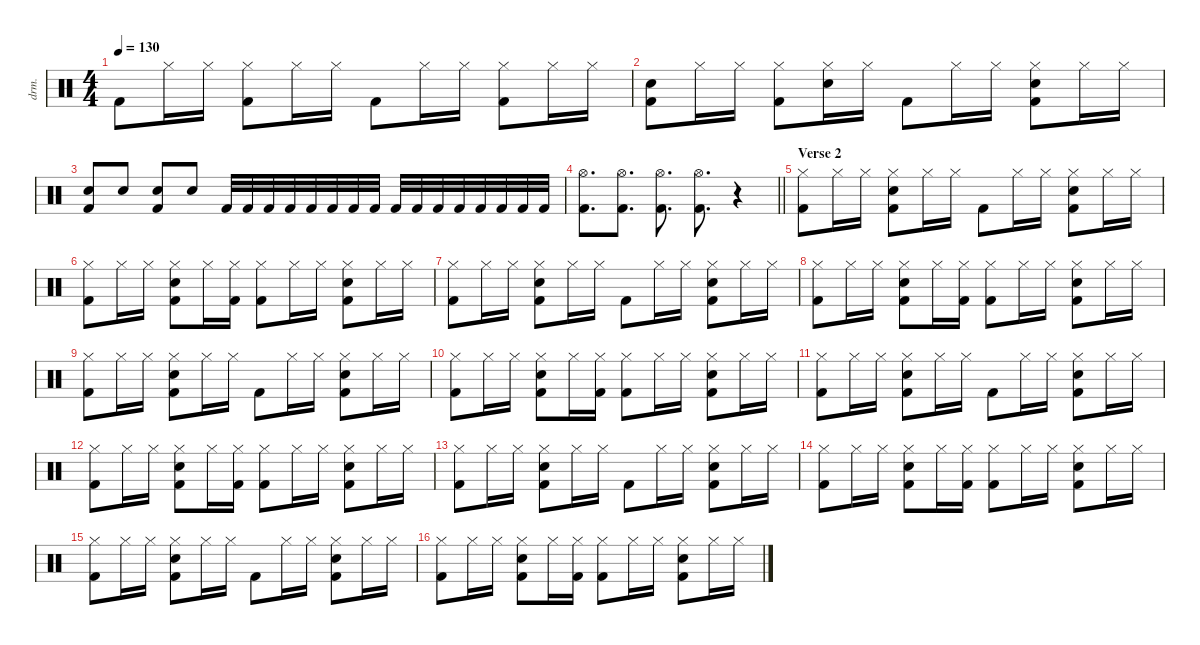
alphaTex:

\defaultSystemsLayout 4
\hideDynamics
\bracketExtendMode nobrackets
\otherSystemsTrackNameOrientation horizontal
\track ("Percussion" "drm.") {defaultSystemsLayout 4 instrument percussion}
\staff {score}
\articulation defaults
\ts (4 4)
\tempo 130
\clef neutral
\ks c "Kick (hit) 2".8{dy f beam Down} "Hi-Hat (closed)".16{beam Down} "Hi-Hat (closed)".16{beam Down}
("Hi-Hat (closed)" "Kick (hit) 2").8{beam Down} "Hi-Hat (closed)".16{beam Down} "Hi-Hat (closed)".16{beam Down} "Kick (hit) 2".8{beam Down} "Hi-Hat (closed)".16{beam Down} "Hi-Hat (closed)".16{beam Down} ("Hi-Hat (closed)" "Kick (hit) 2").8{beam Down} "Hi-Hat (closed)".16{beam Down} "Hi-Hat (closed)".16{beam Down} |
("Snare (hit) 2" "Kick (hit) 2").8{beam Down} "Hi-Hat (closed)".16{beam Down} "Hi-Hat (closed)".16{beam Down} ("Hi-Hat (closed)" "Kick (hit) 2").8{beam Down} ("Hi-Hat (closed)" "Snare (hit) 2").16{beam Down} "Hi-Hat (closed)".16{beam Down} "Kick (hit) 2".8{beam Down} "Hi-Hat (closed)".16{beam Down} "Hi-Hat (closed)".16{beam Down} ("Hi-Hat (closed)" "Snare (hit) 2" "Kick (hit) 2").8{beam Down} "Hi-Hat (closed)".16{beam Down} "Hi-Hat (closed)".16{beam Down} |
("Snare (hit) 2" "Kick (hit) 2").8{beam Up} "Snare (hit) 2".8{beam Up} ("Snare (hit) 2" "Kick (hit) 2").8{beam Up} "Snare (hit) 2".8{beam Up} "Kick (hit) 2".32{beam Up} "Kick (hit) 2".32{dy mf beam Up} "Kick (hit) 2".32{dy f beam Up} "Kick (hit) 2".32{dy mf beam Up} "Kick (hit) 2".32{dy f beam Up} "Kick (hit) 2".32{dy mf beam Up} "Kick (hit) 2".32{dy f beam Up} "Kick (hit) 2".32{dy mf beam Up} "Kick (hit) 2".32{dy f beam Up} "Kick (hit) 2".32{dy mf beam Up} "Kick (hit) 2".32{dy f beam Up} "Kick (hit) 2".32{dy mf beam Up} "Kick (hit) 2".32{dy f beam Up} "Kick (hit) 2".32{dy mf beam Up} "Kick (hit) 2".32{dy f beam Up} "Kick (hit) 2".32{dy mf beam Up} |
\barLineRight lightlight
("Hi-Hat (open)" "Kick (hit) 2").8{d dy f beam Down} ("Hi-Hat (open)" "Kick (hit) 2").8{d beam Down} ("Hi-Hat (open)" "Kick (hit) 2").8{d beam Down} ("Hi-Hat (open)" "Kick (hit) 2").8{d beam Down} r.4{beam Down} |
\section ("" "Verse 2")
("Hi-Hat (closed)" "Kick (hit) 2").8{beam Down} "Hi-Hat (closed)".16{beam Down} "Hi-Hat (closed)".16{beam Down} ("Hi-Hat (closed)" "Snare (hit) 2" "Kick (hit) 2").8{beam Down} "Hi-Hat (closed)".16{beam Down} "Hi-Hat (closed)".16{beam Down} "Kick (hit) 2".8{beam Down} "Hi-Hat (closed)".16{beam Down} "Hi-Hat (closed)".16{beam Down} ("Hi-Hat (closed)" "Snare (hit) 2" "Kick (hit) 2").8{beam Down} "Hi-Hat (closed)".16{beam Down} "Hi-Hat (closed)".16{beam Down} |
("Hi-Hat (closed)" "Kick (hit) 2").8{beam Down} "Hi-Hat (closed)".16{beam Down} "Hi-Hat (closed)".16{beam Down} ("Hi-Hat (closed)" "Snare (hit) 2" "Kick (hit) 2").8{beam Down} "Hi-Hat (closed)".16{beam Down} ("Hi-Hat (closed)" "Kick (hit) 2").16{beam Down} ("Hi-Hat (closed)" "Kick (hit) 2").8{beam Down} "Hi-Hat (closed)".16{beam Down} "Hi-Hat (closed)".16{beam Down} ("Hi-Hat (closed)" "Snare (hit) 2" "Kick (hit) 2").8{beam Down} "Hi-Hat (closed)".16{beam Down} "Hi-Hat (closed)".16{beam Down} |
("Hi-Hat (closed)" "Kick (hit) 2").8{beam Down} "Hi-Hat (closed)".16{beam Down} "Hi-Hat (closed)".16{beam Down} ("Hi-Hat (closed)" "Snare (hit) 2" "Kick (hit) 2").8{beam Down} "Hi-Hat (closed)".16{beam Down} "Hi-Hat (closed)".16{beam Down} "Kick (hit) 2".8{beam Down} "Hi-Hat (closed)".16{beam Down} "Hi-Hat (closed)".16{beam Down} ("Hi-Hat (closed)" "Snare (hit) 2" "Kick (hit) 2").8{beam Down} "Hi-Hat (closed)".16{beam Down} "Hi-Hat (closed)".16{beam Down} |
("Hi-Hat (closed)" "Kick (hit) 2").8{beam Down} "Hi-Hat (closed)".16{beam Down} "Hi-Hat (closed)".16{beam Down} ("Hi-Hat (closed)" "Snare (hit) 2" "Kick (hit) 2").8{beam Down} "Hi-Hat (closed)".16{beam Down} ("Hi-Hat (closed)" "Kick (hit) 2").16{beam Down} ("Hi-Hat (closed)" "Kick (hit) 2").8{beam Down} "Hi-Hat (closed)".16{beam Down} "Hi-Hat (closed)".16{beam Down} ("Hi-Hat (closed)" "Snare (hit) 2" "Kick (hit) 2").8{beam Down} "Hi-Hat (closed)".16{beam Down} "Hi-Hat (closed)".16{beam Down} |
("Hi-Hat (closed)" "Kick (hit) 2").8{beam Down} "Hi-Hat (closed)".16{beam Down} "Hi-Hat (closed)".16{beam Down} ("Hi-Hat (closed)" "Snare (hit) 2" "Kick (hit) 2").8{beam Down} "Hi-Hat (closed)".16{beam Down} "Hi-Hat (closed)".16{beam Down} "Kick (hit) 2".8{beam Down} "Hi-Hat (closed)".16{beam Down} "Hi-Hat (closed)".16{beam Down} ("Hi-Hat (closed)" "Snare (hit) 2" "Kick (hit) 2").8{beam Down} "Hi-Hat (closed)".16{beam Down} "Hi-Hat (closed)".16{beam Down} |
("Hi-Hat (closed)" "Kick (hit) 2").8{beam Down} "Hi-Hat (closed)".16{beam Down} "Hi-Hat (closed)".16{beam Down} ("Hi-Hat (closed)" "Snare (hit) 2" "Kick (hit) 2").8{beam Down} "Hi-Hat (closed)".16{beam Down} ("Hi-Hat (closed)" "Kick (hit) 2").16{beam Down} ("Hi-Hat (closed)" "Kick (hit) 2").8{beam Down} "Hi-Hat (closed)".16{beam Down} "Hi-Hat (closed)".16{beam Down} ("Hi-Hat (closed)" "Snare (hit) 2" "Kick (hit) 2").8{beam Down} "Hi-Hat (closed)".16{beam Down} "Hi-Hat (closed)".16{beam Down} |
("Hi-Hat (closed)" "Kick (hit) 2").8{beam Down} "Hi-Hat (closed)".16{beam Down} "Hi-Hat (closed)".16{beam Down} ("Hi-Hat (closed)" "Snare (hit) 2" "Kick (hit) 2").8{beam Down} "Hi-Hat (closed)".16{beam Down} "Hi-Hat (closed)".16{beam Down} "Kick (hit) 2".8{beam Down} "Hi-Hat (closed)".16{beam Down} "Hi-Hat (closed)".16{beam Down} ("Hi-Hat (closed)" "Snare (hit) 2" "Kick (hit) 2").8{beam Down} "Hi-Hat (closed)".16{beam Down} "Hi-Hat (closed)".16{beam Down} |
("Hi-Hat (closed)" "Kick (hit) 2").8{beam Down} "Hi-Hat (closed)".16{beam Down} "Hi-Hat (closed)".16{beam Down} ("Hi-Hat (closed)" "Snare (hit) 2" "Kick (hit) 2").8{beam Down} "Hi-Hat (closed)".16{beam Down} ("Hi-Hat (closed)" "Kick (hit) 2").16{beam Down} ("Hi-Hat (closed)" "Kick (hit) 2").8{beam Down} "Hi-Hat (closed)".16{beam Down} "Hi-Hat (closed)".16{beam Down} ("Hi-Hat (closed)" "Snare (hit) 2" "Kick (hit) 2").8{beam Down} "Hi-Hat (closed)".16{beam Down} "Hi-Hat (closed)".16{beam Down} |
("Hi-Hat (closed)" "Kick (hit) 2").8{beam Down} "Hi-Hat (closed)".16{beam Down} "Hi-Hat (closed)".16{beam Down} ("Hi-Hat (closed)" "Snare (hit) 2" "Kick (hit) 2").8{beam Down} "Hi-Hat (closed)".16{beam Down} "Hi-Hat (closed)".16{beam Down} "Kick (hit) 2".8{beam Down} "Hi-Hat (closed)".16{beam Down} "Hi-Hat (closed)".16{beam Down} ("Hi-Hat (closed)" "Snare (hit) 2" "Kick (hit) 2").8{beam Down} "Hi-Hat (closed)".16{beam Down} "Hi-Hat (closed)".16{beam Down} |
("Hi-Hat (closed)" "Kick (hit) 2").8{beam Down} "Hi-Hat (closed)".16{beam Down} "Hi-Hat (closed)".16{beam Down} ("Hi-Hat (closed)" "Snare (hit) 2" "Kick (hit) 2").8{beam Down} "Hi-Hat (closed)".16{beam Down} ("Hi-Hat (closed)" "Kick (hit) 2").16{beam Down} ("Hi-Hat (closed)" "Kick (hit) 2").8{beam Down} "Hi-Hat (closed)".16{beam Down} "Hi-Hat (closed)".16{beam Down} ("Hi-Hat (closed)" "Snare (hit) 2" "Kick (hit) 2").8{beam Down} "Hi-Hat (closed)".16{beam Down} "Hi-Hat (closed)".16{beam Down} |
("Hi-Hat (closed)" "Kick (hit) 2").8{beam Down} "Hi-Hat (closed)".16{beam Down} "Hi-Hat (closed)".16{beam Down} ("Hi-Hat (closed)" "Snare (hit) 2" "Kick (hit) 2").8{beam Down} "Hi-Hat (closed)".16{beam Down} "Hi-Hat (closed)".16{beam Down} "Kick (hit) 2".8{beam Down} "Hi-Hat (closed)".16{beam Down} "Hi-Hat (closed)".16{beam Down} ("Hi-Hat (closed)" "Snare (hit) 2" "Kick (hit) 2").8{beam Down} "Hi-Hat (closed)".16{beam Down} "Hi-Hat (closed)".16{beam Down} |
("Hi-Hat (closed)" "Kick (hit) 2").8{beam Down} "Hi-Hat (closed)".16{beam Down} "Hi-Hat (closed)".16{beam Down} ("Hi-Hat (closed)" "Snare (hit) 2" "Kick (hit) 2").8{beam Down} "Hi-Hat (closed)".16{beam Down} ("Hi-Hat (closed)" "Kick (hit) 2").16{beam Down} ("Hi-Hat (closed)" "Kick (hit) 2").8{beam Down} "Hi-Hat (closed)".16{beam Down} "Hi-Hat (closed)".16{beam Down} ("Hi-Hat (closed)" "Snare (hit) 2" "Kick (hit) 2").8{beam Down} "Hi-Hat (closed)".16{beam Down} "Hi-Hat (closed)".16{beam Down}
